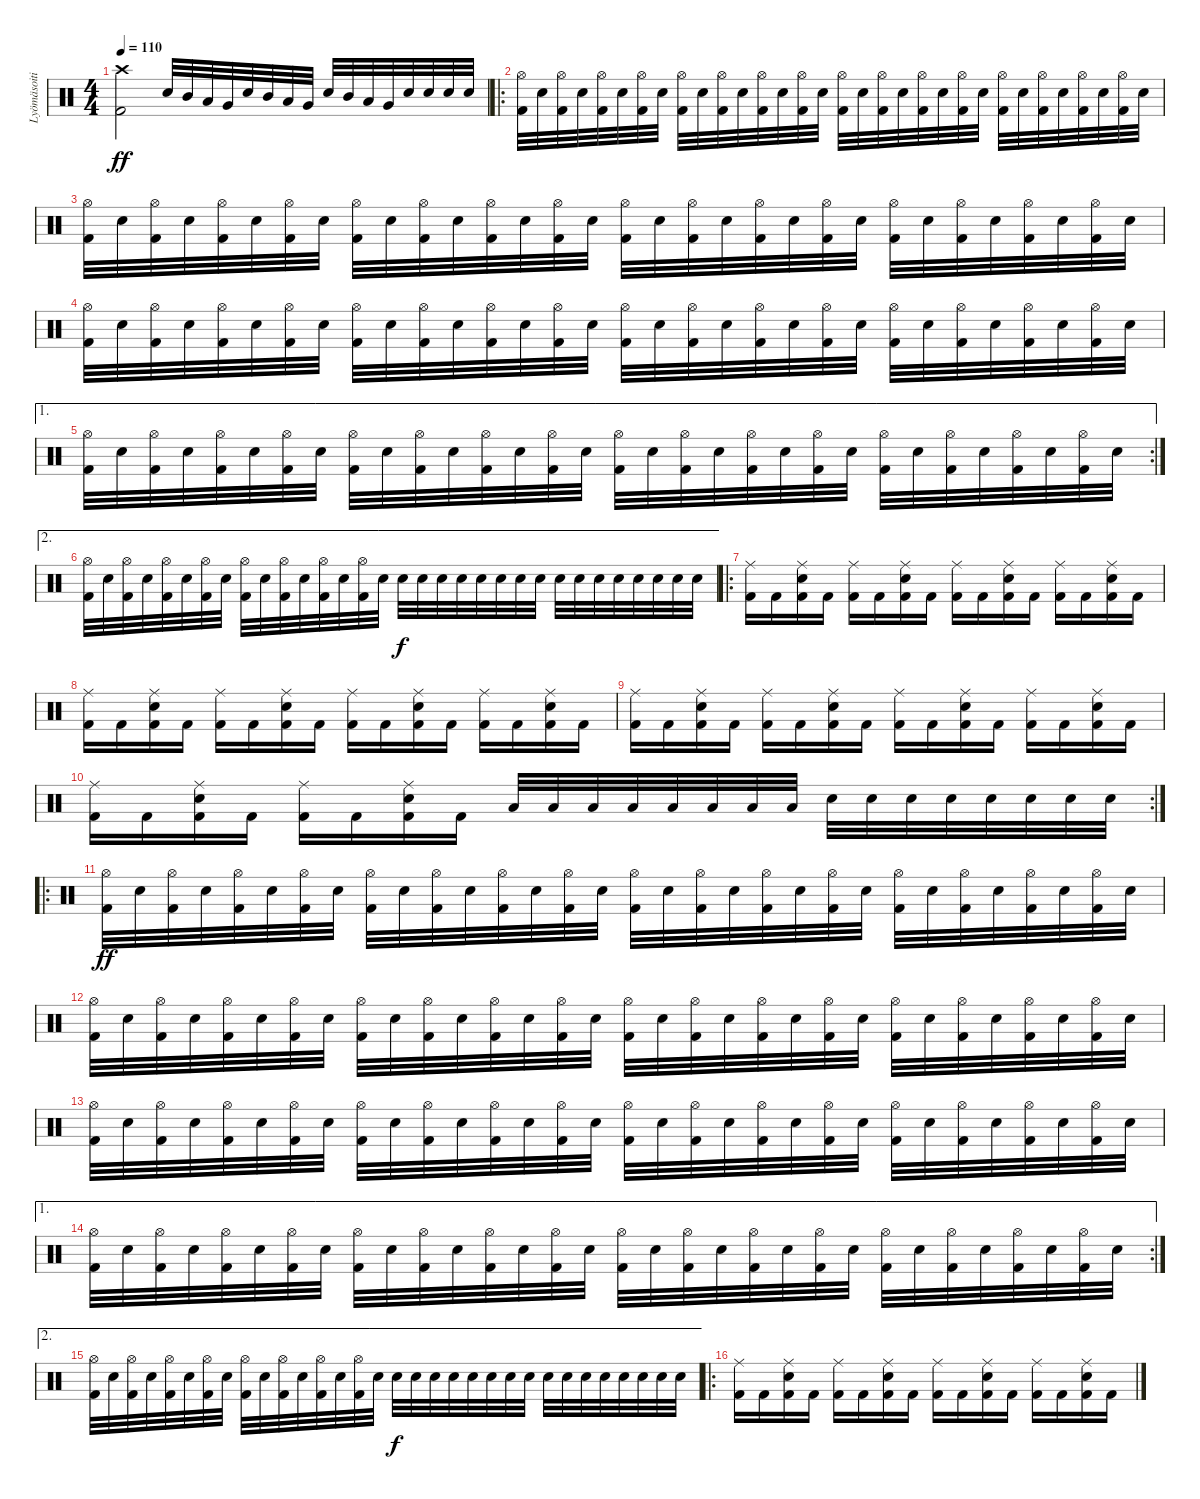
\track ("Lyömäsoitin" "Lyömäsoiti") {instrument percussion}
\staff {score}
\articulation defaults
\ts (4 4)
\tempo 110
\clef neutral
\ks c
("Kick (hit) 2" "Crash high (hit)").2{dy ff} "Snare (hit) 2".32 "Mid Tom (hit)".32 "Low Tom (hit)".32 "Very Low Tom (hit)".32 "Snare (hit) 2".32 "Mid Tom (hit)".32 "Low Tom (hit)".32 "Very Low Tom (hit)".32 "Snare (hit) 2".32 "Mid Tom (hit)".32 "Low Tom (hit)".32 "Very Low Tom (hit)".32 "Snare (hit) 2".32 "Snare (hit) 2".32 "Snare (hit) 2".32 "Snare (hit) 2".32 |
\ro
("Hi-Hat (open)" "Kick (hit) 2").32 "Snare (hit) 2".32 ("Hi-Hat (open)" "Kick (hit) 2").32 "Snare (hit) 2".32 ("Hi-Hat (open)" "Kick (hit) 2").32 "Snare (hit) 2".32 ("Hi-Hat (open)" "Kick (hit) 2").32 "Snare (hit) 2".32 ("Hi-Hat (open)" "Kick (hit) 2").32 "Snare (hit) 2".32 ("Hi-Hat (open)" "Kick (hit) 2").32 "Snare (hit) 2".32 ("Hi-Hat (open)" "Kick (hit) 2").32 "Snare (hit) 2".32 ("Hi-Hat (open)" "Kick (hit) 2").32 "Snare (hit) 2".32 ("Hi-Hat (open)" "Kick (hit) 2").32 "Snare (hit) 2".32 ("Hi-Hat (open)" "Kick (hit) 2").32 "Snare (hit) 2".32 ("Hi-Hat (open)" "Kick (hit) 2").32 "Snare (hit) 2".32 ("Hi-Hat (open)" "Kick (hit) 2").32 "Snare (hit) 2".32 ("Hi-Hat (open)" "Kick (hit) 2").32 "Snare (hit) 2".32 ("Hi-Hat (open)" "Kick (hit) 2").32 "Snare (hit) 2".32 ("Hi-Hat (open)" "Kick (hit) 2").32 "Snare (hit) 2".32 ("Hi-Hat (open)" "Kick (hit) 2").32 "Snare (hit) 2".32 |
("Hi-Hat (open)" "Kick (hit) 2").32 "Snare (hit) 2".32 ("Hi-Hat (open)" "Kick (hit) 2").32 "Snare (hit) 2".32 ("Hi-Hat (open)" "Kick (hit) 2").32 "Snare (hit) 2".32 ("Hi-Hat (open)" "Kick (hit) 2").32 "Snare (hit) 2".32 ("Hi-Hat (open)" "Kick (hit) 2").32 "Snare (hit) 2".32 ("Hi-Hat (open)" "Kick (hit) 2").32 "Snare (hit) 2".32 ("Hi-Hat (open)" "Kick (hit) 2").32 "Snare (hit) 2".32 ("Hi-Hat (open)" "Kick (hit) 2").32 "Snare (hit) 2".32 ("Hi-Hat (open)" "Kick (hit) 2").32 "Snare (hit) 2".32 ("Hi-Hat (open)" "Kick (hit) 2").32 "Snare (hit) 2".32 ("Hi-Hat (open)" "Kick (hit) 2").32 "Snare (hit) 2".32 ("Hi-Hat (open)" "Kick (hit) 2").32 "Snare (hit) 2".32 ("Hi-Hat (open)" "Kick (hit) 2").32 "Snare (hit) 2".32 ("Hi-Hat (open)" "Kick (hit) 2").32 "Snare (hit) 2".32 ("Hi-Hat (open)" "Kick (hit) 2").32 "Snare (hit) 2".32 ("Hi-Hat (open)" "Kick (hit) 2").32 "Snare (hit) 2".32 |
("Hi-Hat (open)" "Kick (hit) 2").32 "Snare (hit) 2".32 ("Hi-Hat (open)" "Kick (hit) 2").32 "Snare (hit) 2".32 ("Hi-Hat (open)" "Kick (hit) 2").32 "Snare (hit) 2".32 ("Hi-Hat (open)" "Kick (hit) 2").32 "Snare (hit) 2".32 ("Hi-Hat (open)" "Kick (hit) 2").32 "Snare (hit) 2".32 ("Hi-Hat (open)" "Kick (hit) 2").32 "Snare (hit) 2".32 ("Hi-Hat (open)" "Kick (hit) 2").32 "Snare (hit) 2".32 ("Hi-Hat (open)" "Kick (hit) 2").32 "Snare (hit) 2".32 ("Hi-Hat (open)" "Kick (hit) 2").32 "Snare (hit) 2".32 ("Hi-Hat (open)" "Kick (hit) 2").32 "Snare (hit) 2".32 ("Hi-Hat (open)" "Kick (hit) 2").32 "Snare (hit) 2".32 ("Hi-Hat (open)" "Kick (hit) 2").32 "Snare (hit) 2".32 ("Hi-Hat (open)" "Kick (hit) 2").32 "Snare (hit) 2".32 ("Hi-Hat (open)" "Kick (hit) 2").32 "Snare (hit) 2".32 ("Hi-Hat (open)" "Kick (hit) 2").32 "Snare (hit) 2".32 ("Hi-Hat (open)" "Kick (hit) 2").32 "Snare (hit) 2".32 |
\ae 1
\rc 2
("Hi-Hat (open)" "Kick (hit) 2").32 "Snare (hit) 2".32 ("Hi-Hat (open)" "Kick (hit) 2").32 "Snare (hit) 2".32 ("Hi-Hat (open)" "Kick (hit) 2").32 "Snare (hit) 2".32 ("Hi-Hat (open)" "Kick (hit) 2").32 "Snare (hit) 2".32 ("Hi-Hat (open)" "Kick (hit) 2").32 "Snare (hit) 2".32 ("Hi-Hat (open)" "Kick (hit) 2").32 "Snare (hit) 2".32 ("Hi-Hat (open)" "Kick (hit) 2").32 "Snare (hit) 2".32 ("Hi-Hat (open)" "Kick (hit) 2").32 "Snare (hit) 2".32 ("Hi-Hat (open)" "Kick (hit) 2").32 "Snare (hit) 2".32 ("Hi-Hat (open)" "Kick (hit) 2").32 "Snare (hit) 2".32 ("Hi-Hat (open)" "Kick (hit) 2").32 "Snare (hit) 2".32 ("Hi-Hat (open)" "Kick (hit) 2").32 "Snare (hit) 2".32 ("Hi-Hat (open)" "Kick (hit) 2").32 "Snare (hit) 2".32 ("Hi-Hat (open)" "Kick (hit) 2").32 "Snare (hit) 2".32 ("Hi-Hat (open)" "Kick (hit) 2").32 "Snare (hit) 2".32 ("Hi-Hat (open)" "Kick (hit) 2").32 "Snare (hit) 2".32 |
\ae 2
("Hi-Hat (open)" "Kick (hit) 2").32 "Snare (hit) 2".32 ("Hi-Hat (open)" "Kick (hit) 2").32 "Snare (hit) 2".32 ("Hi-Hat (open)" "Kick (hit) 2").32 "Snare (hit) 2".32 ("Hi-Hat (open)" "Kick (hit) 2").32 "Snare (hit) 2".32 ("Hi-Hat (open)" "Kick (hit) 2").32 "Snare (hit) 2".32 ("Hi-Hat (open)" "Kick (hit) 2").32 "Snare (hit) 2".32 ("Hi-Hat (open)" "Kick (hit) 2").32 "Snare (hit) 2".32 ("Hi-Hat (open)" "Kick (hit) 2").32 "Snare (hit) 2".32 "Snare (hit) 2".32{dy f} "Snare (hit) 2".32 "Snare (hit) 2".32 "Snare (hit) 2".32 "Snare (hit) 2".32 "Snare (hit) 2".32 "Snare (hit) 2".32 "Snare (hit) 2".32 "Snare (hit) 2".32 "Snare (hit) 2".32 "Snare (hit) 2".32 "Snare (hit) 2".32 "Snare (hit) 2".32 "Snare (hit) 2".32 "Snare (hit) 2".32 "Snare (hit) 2".32 |
\ro
("Ride (middle)" "Kick (hit) 2").16 "Kick (hit) 2".16 ("Ride (middle)" "Kick (hit) 2" "Snare (hit) 2").16 "Kick (hit) 2".16 ("Ride (middle)" "Kick (hit) 2").16 "Kick (hit) 2".16 ("Ride (middle)" "Kick (hit) 2" "Snare (hit) 2").16 "Kick (hit) 2".16 ("Ride (middle)" "Kick (hit) 2").16 "Kick (hit) 2".16 ("Ride (middle)" "Kick (hit) 2" "Snare (hit) 2").16 "Kick (hit) 2".16 ("Ride (middle)" "Kick (hit) 2").16 "Kick (hit) 2".16 ("Ride (middle)" "Kick (hit) 2" "Snare (hit) 2").16 "Kick (hit) 2".16 |
("Ride (middle)" "Kick (hit) 2").16 "Kick (hit) 2".16 ("Ride (middle)" "Kick (hit) 2" "Snare (hit) 2").16 "Kick (hit) 2".16 ("Ride (middle)" "Kick (hit) 2").16 "Kick (hit) 2".16 ("Ride (middle)" "Kick (hit) 2" "Snare (hit) 2").16 "Kick (hit) 2".16 ("Ride (middle)" "Kick (hit) 2").16 "Kick (hit) 2".16 ("Ride (middle)" "Kick (hit) 2" "Snare (hit) 2").16 "Kick (hit) 2".16 ("Ride (middle)" "Kick (hit) 2").16 "Kick (hit) 2".16 ("Ride (middle)" "Kick (hit) 2" "Snare (hit) 2").16 "Kick (hit) 2".16 |
("Ride (middle)" "Kick (hit) 2").16 "Kick (hit) 2".16 ("Ride (middle)" "Kick (hit) 2" "Snare (hit) 2").16 "Kick (hit) 2".16 ("Ride (middle)" "Kick (hit) 2").16 "Kick (hit) 2".16 ("Ride (middle)" "Kick (hit) 2" "Snare (hit) 2").16 "Kick (hit) 2".16 ("Ride (middle)" "Kick (hit) 2").16 "Kick (hit) 2".16 ("Ride (middle)" "Kick (hit) 2" "Snare (hit) 2").16 "Kick (hit) 2".16 ("Ride (middle)" "Kick (hit) 2").16 "Kick (hit) 2".16 ("Ride (middle)" "Kick (hit) 2" "Snare (hit) 2").16 "Kick (hit) 2".16 |
\rc 2
("Ride (middle)" "Kick (hit) 2").16 "Kick (hit) 2".16 ("Ride (middle)" "Kick (hit) 2" "Snare (hit) 2").16 "Kick (hit) 2".16 ("Ride (middle)" "Kick (hit) 2").16 "Kick (hit) 2".16 ("Ride (middle)" "Kick (hit) 2" "Snare (hit) 2").16 "Kick (hit) 2".16 "Low Tom (hit)".32 "Low Tom (hit)".32 "Low Tom (hit)".32 "Low Tom (hit)".32 "Low Tom (hit)".32 "Low Tom (hit)".32 "Low Tom (hit)".32 "Low Tom (hit)".32 "Snare (hit) 2".32 "Snare (hit) 2".32 "Snare (hit) 2".32 "Snare (hit) 2".32 "Snare (hit) 2".32 "Snare (hit) 2".32 "Snare (hit) 2".32 "Snare (hit) 2".32 |
\ro
("Hi-Hat (open)" "Kick (hit) 2").32{dy ff} "Snare (hit) 2".32 ("Hi-Hat (open)" "Kick (hit) 2").32 "Snare (hit) 2".32 ("Hi-Hat (open)" "Kick (hit) 2").32 "Snare (hit) 2".32 ("Hi-Hat (open)" "Kick (hit) 2").32 "Snare (hit) 2".32 ("Hi-Hat (open)" "Kick (hit) 2").32 "Snare (hit) 2".32 ("Hi-Hat (open)" "Kick (hit) 2").32 "Snare (hit) 2".32 ("Hi-Hat (open)" "Kick (hit) 2").32 "Snare (hit) 2".32 ("Hi-Hat (open)" "Kick (hit) 2").32 "Snare (hit) 2".32 ("Hi-Hat (open)" "Kick (hit) 2").32 "Snare (hit) 2".32 ("Hi-Hat (open)" "Kick (hit) 2").32 "Snare (hit) 2".32 ("Hi-Hat (open)" "Kick (hit) 2").32 "Snare (hit) 2".32 ("Hi-Hat (open)" "Kick (hit) 2").32 "Snare (hit) 2".32 ("Hi-Hat (open)" "Kick (hit) 2").32 "Snare (hit) 2".32 ("Hi-Hat (open)" "Kick (hit) 2").32 "Snare (hit) 2".32 ("Hi-Hat (open)" "Kick (hit) 2").32 "Snare (hit) 2".32 ("Hi-Hat (open)" "Kick (hit) 2").32 "Snare (hit) 2".32 |
("Hi-Hat (open)" "Kick (hit) 2").32 "Snare (hit) 2".32 ("Hi-Hat (open)" "Kick (hit) 2").32 "Snare (hit) 2".32 ("Hi-Hat (open)" "Kick (hit) 2").32 "Snare (hit) 2".32 ("Hi-Hat (open)" "Kick (hit) 2").32 "Snare (hit) 2".32 ("Hi-Hat (open)" "Kick (hit) 2").32 "Snare (hit) 2".32 ("Hi-Hat (open)" "Kick (hit) 2").32 "Snare (hit) 2".32 ("Hi-Hat (open)" "Kick (hit) 2").32 "Snare (hit) 2".32 ("Hi-Hat (open)" "Kick (hit) 2").32 "Snare (hit) 2".32 ("Hi-Hat (open)" "Kick (hit) 2").32 "Snare (hit) 2".32 ("Hi-Hat (open)" "Kick (hit) 2").32 "Snare (hit) 2".32 ("Hi-Hat (open)" "Kick (hit) 2").32 "Snare (hit) 2".32 ("Hi-Hat (open)" "Kick (hit) 2").32 "Snare (hit) 2".32 ("Hi-Hat (open)" "Kick (hit) 2").32 "Snare (hit) 2".32 ("Hi-Hat (open)" "Kick (hit) 2").32 "Snare (hit) 2".32 ("Hi-Hat (open)" "Kick (hit) 2").32 "Snare (hit) 2".32 ("Hi-Hat (open)" "Kick (hit) 2").32 "Snare (hit) 2".32 |
("Hi-Hat (open)" "Kick (hit) 2").32 "Snare (hit) 2".32 ("Hi-Hat (open)" "Kick (hit) 2").32 "Snare (hit) 2".32 ("Hi-Hat (open)" "Kick (hit) 2").32 "Snare (hit) 2".32 ("Hi-Hat (open)" "Kick (hit) 2").32 "Snare (hit) 2".32 ("Hi-Hat (open)" "Kick (hit) 2").32 "Snare (hit) 2".32 ("Hi-Hat (open)" "Kick (hit) 2").32 "Snare (hit) 2".32 ("Hi-Hat (open)" "Kick (hit) 2").32 "Snare (hit) 2".32 ("Hi-Hat (open)" "Kick (hit) 2").32 "Snare (hit) 2".32 ("Hi-Hat (open)" "Kick (hit) 2").32 "Snare (hit) 2".32 ("Hi-Hat (open)" "Kick (hit) 2").32 "Snare (hit) 2".32 ("Hi-Hat (open)" "Kick (hit) 2").32 "Snare (hit) 2".32 ("Hi-Hat (open)" "Kick (hit) 2").32 "Snare (hit) 2".32 ("Hi-Hat (open)" "Kick (hit) 2").32 "Snare (hit) 2".32 ("Hi-Hat (open)" "Kick (hit) 2").32 "Snare (hit) 2".32 ("Hi-Hat (open)" "Kick (hit) 2").32 "Snare (hit) 2".32 ("Hi-Hat (open)" "Kick (hit) 2").32 "Snare (hit) 2".32 |
\ae 1
\rc 2
("Hi-Hat (open)" "Kick (hit) 2").32 "Snare (hit) 2".32 ("Hi-Hat (open)" "Kick (hit) 2").32 "Snare (hit) 2".32 ("Hi-Hat (open)" "Kick (hit) 2").32 "Snare (hit) 2".32 ("Hi-Hat (open)" "Kick (hit) 2").32 "Snare (hit) 2".32 ("Hi-Hat (open)" "Kick (hit) 2").32 "Snare (hit) 2".32 ("Hi-Hat (open)" "Kick (hit) 2").32 "Snare (hit) 2".32 ("Hi-Hat (open)" "Kick (hit) 2").32 "Snare (hit) 2".32 ("Hi-Hat (open)" "Kick (hit) 2").32 "Snare (hit) 2".32 ("Hi-Hat (open)" "Kick (hit) 2").32 "Snare (hit) 2".32 ("Hi-Hat (open)" "Kick (hit) 2").32 "Snare (hit) 2".32 ("Hi-Hat (open)" "Kick (hit) 2").32 "Snare (hit) 2".32 ("Hi-Hat (open)" "Kick (hit) 2").32 "Snare (hit) 2".32 ("Hi-Hat (open)" "Kick (hit) 2").32 "Snare (hit) 2".32 ("Hi-Hat (open)" "Kick (hit) 2").32 "Snare (hit) 2".32 ("Hi-Hat (open)" "Kick (hit) 2").32 "Snare (hit) 2".32 ("Hi-Hat (open)" "Kick (hit) 2").32 "Snare (hit) 2".32 |
\ae 2
("Hi-Hat (open)" "Kick (hit) 2").32 "Snare (hit) 2".32 ("Hi-Hat (open)" "Kick (hit) 2").32 "Snare (hit) 2".32 ("Hi-Hat (open)" "Kick (hit) 2").32 "Snare (hit) 2".32 ("Hi-Hat (open)" "Kick (hit) 2").32 "Snare (hit) 2".32 ("Hi-Hat (open)" "Kick (hit) 2").32 "Snare (hit) 2".32 ("Hi-Hat (open)" "Kick (hit) 2").32 "Snare (hit) 2".32 ("Hi-Hat (open)" "Kick (hit) 2").32 "Snare (hit) 2".32 ("Hi-Hat (open)" "Kick (hit) 2").32 "Snare (hit) 2".32 "Snare (hit) 2".32{dy f} "Snare (hit) 2".32 "Snare (hit) 2".32 "Snare (hit) 2".32 "Snare (hit) 2".32 "Snare (hit) 2".32 "Snare (hit) 2".32 "Snare (hit) 2".32 "Snare (hit) 2".32 "Snare (hit) 2".32 "Snare (hit) 2".32 "Snare (hit) 2".32 "Snare (hit) 2".32 "Snare (hit) 2".32 "Snare (hit) 2".32 "Snare (hit) 2".32 |
\ro
("Ride (middle)" "Kick (hit) 2").16 "Kick (hit) 2".16 ("Ride (middle)" "Kick (hit) 2" "Snare (hit) 2").16 "Kick (hit) 2".16 ("Ride (middle)" "Kick (hit) 2").16 "Kick (hit) 2".16 ("Ride (middle)" "Kick (hit) 2" "Snare (hit) 2").16 "Kick (hit) 2".16 ("Ride (middle)" "Kick (hit) 2").16 "Kick (hit) 2".16 ("Ride (middle)" "Kick (hit) 2" "Snare (hit) 2").16 "Kick (hit) 2".16 ("Ride (middle)" "Kick (hit) 2").16 "Kick (hit) 2".16 ("Ride (middle)" "Kick (hit) 2" "Snare (hit) 2").16 "Kick (hit) 2".16
